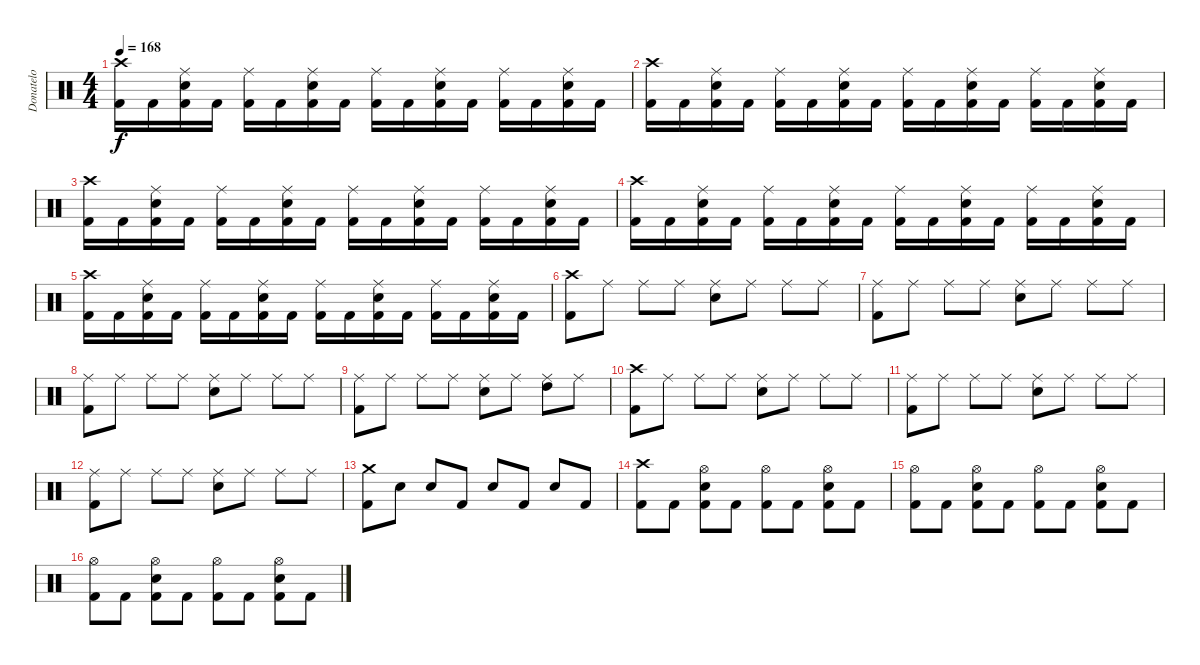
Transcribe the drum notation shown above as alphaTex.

\track ("Donatelo" "Donatelo") {instrument percussion}
\staff {score}
\articulation defaults
\ts (4 4)
\tempo 168
\clef neutral
\ks c
("Kick (hit) 2" "Crash high (hit)").16{dy f} "Kick (hit) 2".16 ("Kick (hit) 2" "Electric Snare (hit)" "Ride (middle)").16 "Kick (hit) 2".16 ("Kick (hit) 2" "Ride (middle)").16 "Kick (hit) 2".16 ("Kick (hit) 2" "Electric Snare (hit)" "Ride (middle)").16 "Kick (hit) 2".16 ("Kick (hit) 2" "Ride (middle)").16 "Kick (hit) 2".16 ("Kick (hit) 2" "Electric Snare (hit)" "Ride (middle)").16 "Kick (hit) 2".16 ("Kick (hit) 2" "Ride (middle)").16 "Kick (hit) 2".16 ("Kick (hit) 2" "Electric Snare (hit)" "Ride (middle)").16 "Kick (hit) 2".16 |
("Kick (hit) 2" "Crash high (hit)").16 "Kick (hit) 2".16 ("Kick (hit) 2" "Electric Snare (hit)" "Ride (middle)").16 "Kick (hit) 2".16 ("Kick (hit) 2" "Ride (middle)").16 "Kick (hit) 2".16 ("Kick (hit) 2" "Electric Snare (hit)" "Ride (middle)").16 "Kick (hit) 2".16 ("Kick (hit) 2" "Ride (middle)").16 "Kick (hit) 2".16 ("Kick (hit) 2" "Electric Snare (hit)" "Ride (middle)").16 "Kick (hit) 2".16 ("Kick (hit) 2" "Ride (middle)").16 "Kick (hit) 2".16 ("Kick (hit) 2" "Electric Snare (hit)" "Ride (middle)").16 "Kick (hit) 2".16 |
("Kick (hit) 2" "Crash high (hit)").16 "Kick (hit) 2".16 ("Kick (hit) 2" "Electric Snare (hit)" "Ride (middle)").16 "Kick (hit) 2".16 ("Kick (hit) 2" "Ride (middle)").16 "Kick (hit) 2".16 ("Kick (hit) 2" "Electric Snare (hit)" "Ride (middle)").16 "Kick (hit) 2".16 ("Kick (hit) 2" "Ride (middle)").16 "Kick (hit) 2".16 ("Kick (hit) 2" "Electric Snare (hit)" "Ride (middle)").16 "Kick (hit) 2".16 ("Kick (hit) 2" "Ride (middle)").16 "Kick (hit) 2".16 ("Kick (hit) 2" "Electric Snare (hit)" "Ride (middle)").16 "Kick (hit) 2".16 |
("Kick (hit) 2" "Crash high (hit)").16 "Kick (hit) 2".16 ("Kick (hit) 2" "Electric Snare (hit)" "Ride (middle)").16 "Kick (hit) 2".16 ("Kick (hit) 2" "Ride (middle)").16 "Kick (hit) 2".16 ("Kick (hit) 2" "Electric Snare (hit)" "Ride (middle)").16 "Kick (hit) 2".16 ("Kick (hit) 2" "Ride (middle)").16 "Kick (hit) 2".16 ("Kick (hit) 2" "Electric Snare (hit)" "Ride (middle)").16 "Kick (hit) 2".16 ("Kick (hit) 2" "Ride (middle)").16 "Kick (hit) 2".16 ("Kick (hit) 2" "Electric Snare (hit)" "Ride (middle)").16 "Kick (hit) 2".16 |
("Kick (hit) 2" "Crash high (hit)").16 "Kick (hit) 2".16 ("Kick (hit) 2" "Electric Snare (hit)" "Ride (middle)").16 "Kick (hit) 2".16 ("Kick (hit) 2" "Ride (middle)").16 "Kick (hit) 2".16 ("Kick (hit) 2" "Electric Snare (hit)" "Ride (middle)").16 "Kick (hit) 2".16 ("Kick (hit) 2" "Ride (middle)").16 "Kick (hit) 2".16 ("Kick (hit) 2" "Electric Snare (hit)" "Ride (middle)").16 "Kick (hit) 2".16 ("Kick (hit) 2" "Ride (middle)").16 "Kick (hit) 2".16 ("Kick (hit) 2" "Electric Snare (hit)" "Ride (middle)").16 "Kick (hit) 2".16 |
("Kick (hit) 2" "Crash high (hit)").8 "Ride (middle)".8 "Ride (middle)".8 "Ride (middle)".8 ("Electric Snare (hit)" "Ride (middle)").8 "Ride (middle)".8 "Ride (middle)".8 "Ride (middle)".8 |
("Kick (hit) 2" "Ride (middle)").8 "Ride (middle)".8 "Ride (middle)".8 "Ride (middle)".8 ("Electric Snare (hit)" "Ride (middle)").8 "Ride (middle)".8 "Ride (middle)".8 "Ride (middle)".8 |
("Kick (hit) 2" "Ride (middle)").8 "Ride (middle)".8 "Ride (middle)".8 "Ride (middle)".8 ("Electric Snare (hit)" "Ride (middle)").8 "Ride (middle)".8 "Ride (middle)".8 "Ride (middle)".8 |
("Kick (hit) 2" "Ride (middle)").8 "Ride (middle)".8 "Ride (middle)".8 "Ride (middle)".8 ("Electric Snare (hit)" "Ride (middle)").8 "Ride (middle)".8 ("High Tom (hit)" "Ride (middle)").8 "Ride (middle)".8 |
("Kick (hit) 2" "Crash high (hit)").8 "Ride (middle)".8 "Ride (middle)".8 "Ride (middle)".8 ("Electric Snare (hit)" "Ride (middle)").8 "Ride (middle)".8 "Ride (middle)".8 "Ride (middle)".8 |
("Kick (hit) 2" "Ride (middle)").8 "Ride (middle)".8 "Ride (middle)".8 "Ride (middle)".8 ("Electric Snare (hit)" "Ride (middle)").8 "Ride (middle)".8 "Ride (middle)".8 "Ride (middle)".8 |
("Kick (hit) 2" "Ride (middle)").8 "Ride (middle)".8 "Ride (middle)".8 "Ride (middle)".8 ("Electric Snare (hit)" "Ride (middle)").8 "Ride (middle)".8 "Ride (middle)".8 "Ride (middle)".8 |
("Kick (hit) 2" "Crash medium (hit)").8 "Electric Snare (hit)".8 "Electric Snare (hit)".8 "Kick (hit) 2".8 "Electric Snare (hit)".8 "Kick (hit) 2".8 "Electric Snare (hit)".8 "Kick (hit) 2".8 |
("Kick (hit) 2" "Crash high (hit)").8 "Kick (hit) 2".8 ("Kick (hit) 2" "Electric Snare (hit)" "Hi-Hat (open)").8 "Kick (hit) 2".8 ("Kick (hit) 2" "Hi-Hat (open)").8 "Kick (hit) 2".8 ("Kick (hit) 2" "Electric Snare (hit)" "Hi-Hat (open)").8 "Kick (hit) 2".8 |
("Kick (hit) 2" "Hi-Hat (open)").8 "Kick (hit) 2".8 ("Kick (hit) 2" "Electric Snare (hit)" "Hi-Hat (open)").8 "Kick (hit) 2".8 ("Kick (hit) 2" "Hi-Hat (open)").8 "Kick (hit) 2".8 ("Kick (hit) 2" "Electric Snare (hit)" "Hi-Hat (open)").8 "Kick (hit) 2".8 |
("Kick (hit) 2" "Hi-Hat (open)").8 "Kick (hit) 2".8 ("Kick (hit) 2" "Electric Snare (hit)" "Hi-Hat (open)").8 "Kick (hit) 2".8 ("Kick (hit) 2" "Hi-Hat (open)").8 "Kick (hit) 2".8 ("Kick (hit) 2" "Electric Snare (hit)" "Hi-Hat (open)").8 "Kick (hit) 2".8
